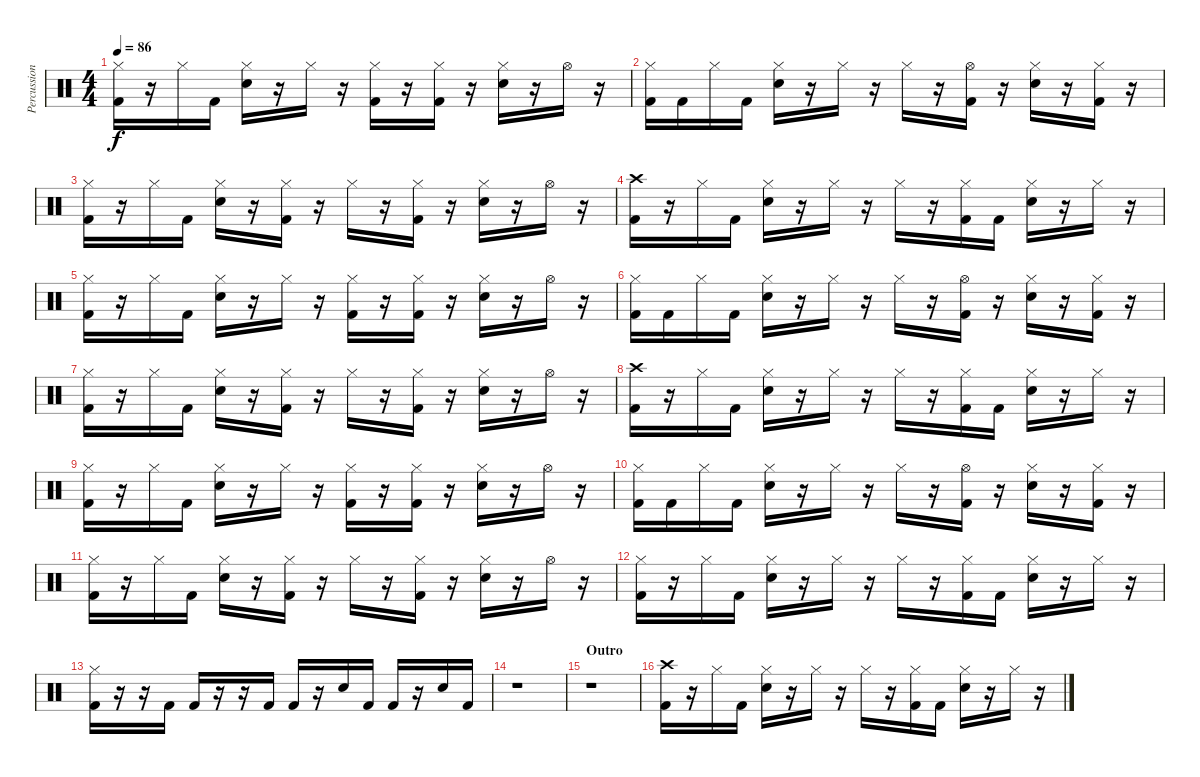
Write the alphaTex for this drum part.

\track ("Percussions" "Percussion") {instrument percussion}
\staff {score}
\articulation defaults
\ts (4 4)
\tempo 86
\clef neutral
\ks c
("Hi-Hat (closed)" "Kick (hit) 2").16{dy f} r.16 "Hi-Hat (closed)".16 "Kick (hit) 2".16 ("Hi-Hat (closed)" "Snare (hit) 2").16 r.16 "Hi-Hat (closed)".16 r.16 ("Hi-Hat (closed)" "Kick (hit) 2").16 r.16 ("Hi-Hat (closed)" "Kick (hit) 2").16 r.16 ("Hi-Hat (closed)" "Snare (hit) 2").16 r.16 "Hi-Hat (open)".16 r.16 |
("Hi-Hat (closed)" "Kick (hit) 2").16 "Kick (hit) 2".16 "Hi-Hat (closed)".16 "Kick (hit) 2".16 ("Hi-Hat (closed)" "Snare (hit) 2").16 r.16 "Hi-Hat (closed)".16 r.16 "Hi-Hat (closed)".16 r.16 ("Hi-Hat (open)" "Kick (hit) 2").16 r.16 ("Hi-Hat (closed)" "Snare (hit) 2").16 r.16 ("Hi-Hat (closed)" "Kick (hit) 2").16 r.16 |
("Hi-Hat (closed)" "Kick (hit) 2").16 r.16 "Hi-Hat (closed)".16 "Kick (hit) 2".16 ("Hi-Hat (closed)" "Snare (hit) 2").16 r.16 ("Hi-Hat (closed)" "Kick (hit) 2").16 r.16 "Hi-Hat (closed)".16 r.16 ("Hi-Hat (closed)" "Kick (hit) 2").16 r.16 ("Hi-Hat (closed)" "Snare (hit) 2").16 r.16 "Hi-Hat (open)".16 r.16 |
("Crash high (hit)" "Kick (hit) 2").16 r.16 "Hi-Hat (closed)".16 "Kick (hit) 2".16 ("Hi-Hat (closed)" "Snare (hit) 2").16 r.16 "Hi-Hat (closed)".16 r.16 "Hi-Hat (closed)".16 r.16 ("Hi-Hat (closed)" "Kick (hit) 2").16 "Kick (hit) 2".16 ("Hi-Hat (closed)" "Snare (hit) 2").16 r.16 "Hi-Hat (closed)".16 r.16 |
("Hi-Hat (closed)" "Kick (hit) 2").16 r.16 "Hi-Hat (closed)".16 "Kick (hit) 2".16 ("Hi-Hat (closed)" "Snare (hit) 2").16 r.16 "Hi-Hat (closed)".16 r.16 ("Hi-Hat (closed)" "Kick (hit) 2").16 r.16 ("Hi-Hat (closed)" "Kick (hit) 2").16 r.16 ("Hi-Hat (closed)" "Snare (hit) 2").16 r.16 "Hi-Hat (open)".16 r.16 |
("Hi-Hat (closed)" "Kick (hit) 2").16 "Kick (hit) 2".16 "Hi-Hat (closed)".16 "Kick (hit) 2".16 ("Hi-Hat (closed)" "Snare (hit) 2").16 r.16 "Hi-Hat (closed)".16 r.16 "Hi-Hat (closed)".16 r.16 ("Hi-Hat (open)" "Kick (hit) 2").16 r.16 ("Hi-Hat (closed)" "Snare (hit) 2").16 r.16 ("Hi-Hat (closed)" "Kick (hit) 2").16 r.16 |
("Hi-Hat (closed)" "Kick (hit) 2").16 r.16 "Hi-Hat (closed)".16 "Kick (hit) 2".16 ("Hi-Hat (closed)" "Snare (hit) 2").16 r.16 ("Hi-Hat (closed)" "Kick (hit) 2").16 r.16 "Hi-Hat (closed)".16 r.16 ("Hi-Hat (closed)" "Kick (hit) 2").16 r.16 ("Hi-Hat (closed)" "Snare (hit) 2").16 r.16 "Hi-Hat (open)".16 r.16 |
("Crash high (hit)" "Kick (hit) 2").16 r.16 "Hi-Hat (closed)".16 "Kick (hit) 2".16 ("Hi-Hat (closed)" "Snare (hit) 2").16 r.16 "Hi-Hat (closed)".16 r.16 "Hi-Hat (closed)".16 r.16 ("Hi-Hat (closed)" "Kick (hit) 2").16 "Kick (hit) 2".16 ("Hi-Hat (closed)" "Snare (hit) 2").16 r.16 "Hi-Hat (closed)".16 r.16 |
("Hi-Hat (closed)" "Kick (hit) 2").16 r.16 "Hi-Hat (closed)".16 "Kick (hit) 2".16 ("Hi-Hat (closed)" "Snare (hit) 2").16 r.16 "Hi-Hat (closed)".16 r.16 ("Hi-Hat (closed)" "Kick (hit) 2").16 r.16 ("Hi-Hat (closed)" "Kick (hit) 2").16 r.16 ("Hi-Hat (closed)" "Snare (hit) 2").16 r.16 "Hi-Hat (open)".16 r.16 |
("Hi-Hat (closed)" "Kick (hit) 2").16 "Kick (hit) 2".16 "Hi-Hat (closed)".16 "Kick (hit) 2".16 ("Hi-Hat (closed)" "Snare (hit) 2").16 r.16 "Hi-Hat (closed)".16 r.16 "Hi-Hat (closed)".16 r.16 ("Hi-Hat (open)" "Kick (hit) 2").16 r.16 ("Hi-Hat (closed)" "Snare (hit) 2").16 r.16 ("Hi-Hat (closed)" "Kick (hit) 2").16 r.16 |
("Hi-Hat (closed)" "Kick (hit) 2").16 r.16 "Hi-Hat (closed)".16 "Kick (hit) 2".16 ("Hi-Hat (closed)" "Snare (hit) 2").16 r.16 ("Hi-Hat (closed)" "Kick (hit) 2").16 r.16 "Hi-Hat (closed)".16 r.16 ("Hi-Hat (closed)" "Kick (hit) 2").16 r.16 ("Hi-Hat (closed)" "Snare (hit) 2").16 r.16 "Hi-Hat (open)".16 r.16 |
("Hi-Hat (closed)" "Kick (hit) 2").16 r.16 "Hi-Hat (closed)".16 "Kick (hit) 2".16 ("Hi-Hat (closed)" "Snare (hit) 2").16 r.16 "Hi-Hat (closed)".16 r.16 "Hi-Hat (closed)".16 r.16 ("Hi-Hat (closed)" "Kick (hit) 2").16 "Kick (hit) 2".16 ("Hi-Hat (closed)" "Snare (hit) 2").16 r.16 "Hi-Hat (closed)".16 r.16 |
("Hi-Hat (closed)" "Kick (hit) 2").16 r.16 r.16 "Kick (hit) 2".16 "Kick (hit) 2".16 r.16 r.16 "Kick (hit) 2".16 "Kick (hit) 2".16 r.16 "Snare (hit) 2".16 "Kick (hit) 2".16 "Kick (hit) 2".16 r.16 "Snare (hit) 2".16 "Kick (hit) 2".16 |
r.1 |
\section ("" "Outro")
r.1 |
("Crash high (hit)" "Kick (hit) 2").16 r.16 "Hi-Hat (closed)".16 "Kick (hit) 2".16 ("Hi-Hat (closed)" "Snare (hit) 2").16 r.16 "Hi-Hat (closed)".16 r.16 "Hi-Hat (closed)".16 r.16 ("Hi-Hat (closed)" "Kick (hit) 2").16 "Kick (hit) 2".16 ("Hi-Hat (closed)" "Snare (hit) 2").16 r.16 "Hi-Hat (closed)".16 r.16
